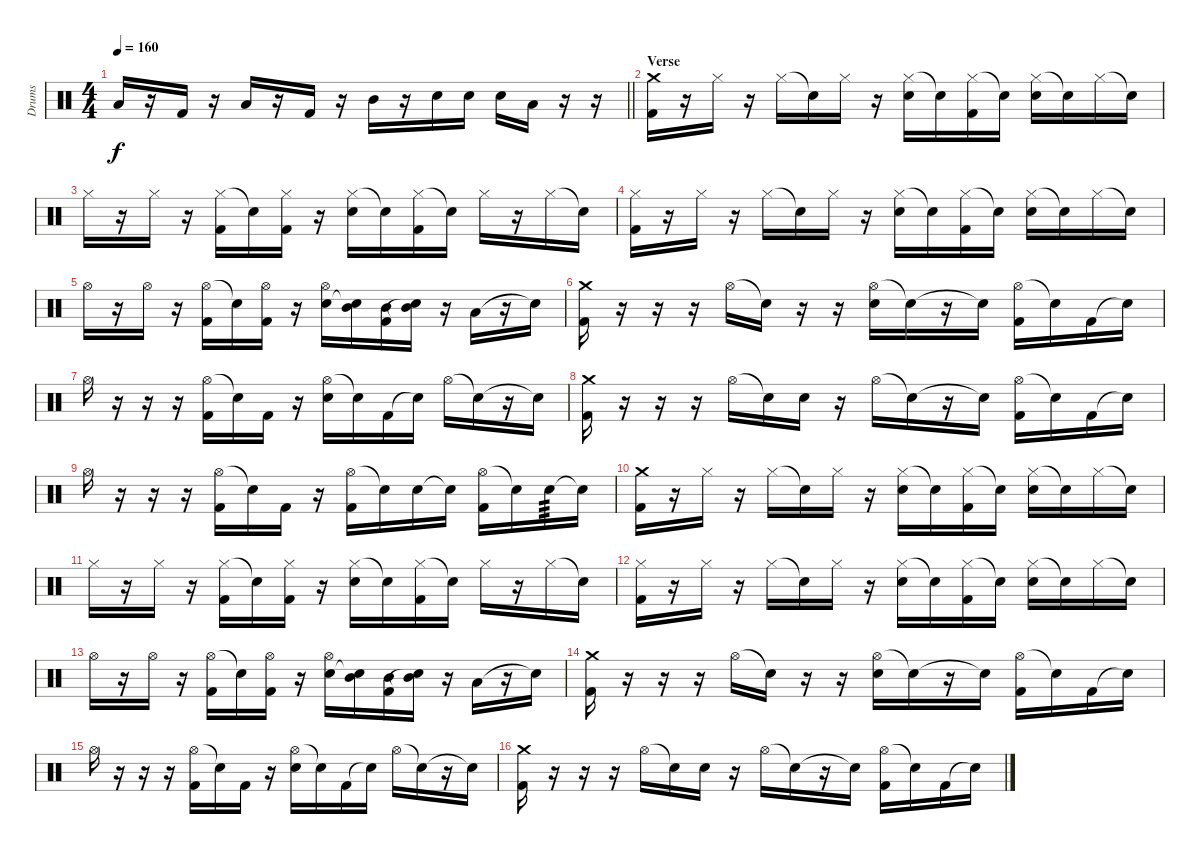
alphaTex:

\track ("Drums" "Drums") {instrument percussion}
\staff {score}
\articulation defaults
\ts (4 4)
\tempo 160
\clef neutral
\barLineRight lightlight
\ks c "Low Tom (hit)".16{dy f}
r.16 "Kick (hit) 2".16 r.16 "Low Tom (hit)".16 r.16 "Kick (hit) 2".16 r.16 "Mid Tom (hit)".16 r.16 "Snare (hit) 2".16 "Snare (hit) 2".16 "Snare (hit) 2".16 "Low Tom (hit)".16 r.16 r.16 |
\section ("" "Verse")
("Crash medium (hit)" "Kick (hit) 2").16 r.16 "Hi-Hat (closed)".16 r.16 "Hi-Hat (closed)".16 "Snare (hit)"{t}.16 "Hi-Hat (closed)".16 r.16 ("Hi-Hat (closed)" "Snare (hit) 2").16 "Snare (hit)"{t}.16 ("Hi-Hat (closed)" "Kick (hit) 2").16 "Snare (hit)"{t}.16 ("Hi-Hat (closed)" "Snare (hit) 2").16 "Snare (hit)"{t}.16 "Hi-Hat (closed)".16 "Snare (hit)"{t}.16 |
"Hi-Hat (closed)".16 r.16 "Hi-Hat (closed)".16 r.16 ("Hi-Hat (closed)" "Kick (hit) 2").16 "Snare (hit)"{t}.16 ("Hi-Hat (closed)" "Kick (hit) 2").16 r.16 ("Hi-Hat (closed)" "Snare (hit) 2").16 "Snare (hit)"{t}.16 ("Hi-Hat (closed)" "Kick (hit) 2").16 "Snare (hit)"{t}.16 "Hi-Hat (closed)".16 r.16 "Hi-Hat (closed)".16 "Snare (hit)"{t}.16 |
("Hi-Hat (closed)" "Kick (hit) 2").16 r.16 "Hi-Hat (closed)".16 r.16 "Hi-Hat (closed)".16 "Snare (hit)"{t}.16 "Hi-Hat (closed)".16 r.16 ("Hi-Hat (closed)" "Snare (hit) 2").16 "Snare (hit)"{t}.16 ("Hi-Hat (closed)" "Kick (hit) 2").16 "Snare (hit)"{t}.16 ("Hi-Hat (closed)" "Snare (hit) 2").16 "Snare (hit)"{t}.16 "Hi-Hat (closed)".16 "Snare (hit)"{t}.16 |
"Hi-Hat (open)".16 r.16 "Hi-Hat (open)".16 r.16 ("Hi-Hat (open)" "Kick (hit) 2").16 "Snare (hit)"{t}.16 ("Hi-Hat (open)" "Kick (hit) 2").16 r.16 ("Hi-Hat (open)" "Snare (hit) 2").16 ("Mid Tom (hit)" "Snare (hit)"{t}).16 ("Mid Tom (hit)" "Kick (hit) 2").16 ("Mid Tom (hit)" "Snare (hit)"{t}).16 r.16 "Low Tom (hit)".16 r.16 "Snare (hit)"{t}.16 |
("Crash medium (hit)" "Kick (hit) 2").16 r.16 r.16 r.16 "Hi-Hat (open)".16 "Snare (hit)"{t}.16 r.16 r.16 ("Hi-Hat (open)" "Snare (hit) 2").16 "Snare (hit)"{t}.16 r.16 "Snare (hit)"{t}.16 ("Hi-Hat (open)" "Kick (hit) 2").16 "Snare (hit)"{t}.16 "Kick (hit) 2".16 "Snare (hit)"{t}.16 |
"Hi-Hat (open)".16 r.16 r.16 r.16 ("Hi-Hat (open)" "Kick (hit) 2").16 "Snare (hit)"{t}.16 "Kick (hit) 2".16 r.16 ("Hi-Hat (open)" "Snare (hit) 2").16 "Snare (hit)"{t}.16 "Kick (hit) 2".16 "Snare (hit)"{t}.16 "Hi-Hat (open)".16 "Snare (hit)"{t}.16 r.16 "Snare (hit)"{t}.16 |
("Crash medium (hit)" "Kick (hit) 2").16 r.16 r.16 r.16 "Hi-Hat (open)".16 "Snare (hit)"{t}.16 "Snare (hit) 2".16 r.16 "Hi-Hat (open)".16 "Snare (hit)"{t}.16 r.16 "Snare (hit)"{t}.16 ("Hi-Hat (open)" "Kick (hit) 2").16 "Snare (hit)"{t}.16 "Kick (hit) 2".16 "Snare (hit)"{t}.16 |
"Hi-Hat (open)".16 r.16 r.16 r.16 ("Hi-Hat (open)" "Kick (hit) 2").16 "Snare (hit)"{t}.16 "Kick (hit) 2".16 r.16 ("Hi-Hat (open)" "Kick (hit) 2").16 "Snare (hit)"{t}.16 "Snare (hit) 2".16 "Snare (hit)"{t}.16 ("Hi-Hat (open)" "Kick (hit) 2").16 "Snare (hit)"{t}.16 "Snare (hit) 2".16{tp 3} "Snare (hit)"{t}.16 |
("Crash medium (hit)" "Kick (hit) 2").16 r.16 "Hi-Hat (closed)".16 r.16 "Hi-Hat (closed)".16 "Snare (hit)"{t}.16 "Hi-Hat (closed)".16 r.16 ("Hi-Hat (closed)" "Snare (hit) 2").16 "Snare (hit)"{t}.16 ("Hi-Hat (closed)" "Kick (hit) 2").16 "Snare (hit)"{t}.16 ("Hi-Hat (closed)" "Snare (hit) 2").16 "Snare (hit)"{t}.16 "Hi-Hat (closed)".16 "Snare (hit)"{t}.16 |
"Hi-Hat (closed)".16 r.16 "Hi-Hat (closed)".16 r.16 ("Hi-Hat (closed)" "Kick (hit) 2").16 "Snare (hit)"{t}.16 ("Hi-Hat (closed)" "Kick (hit) 2").16 r.16 ("Hi-Hat (closed)" "Snare (hit) 2").16 "Snare (hit)"{t}.16 ("Hi-Hat (closed)" "Kick (hit) 2").16 "Snare (hit)"{t}.16 "Hi-Hat (closed)".16 r.16 "Hi-Hat (closed)".16 "Snare (hit)"{t}.16 |
("Hi-Hat (closed)" "Kick (hit) 2").16 r.16 "Hi-Hat (closed)".16 r.16 "Hi-Hat (closed)".16 "Snare (hit)"{t}.16 "Hi-Hat (closed)".16 r.16 ("Hi-Hat (closed)" "Snare (hit) 2").16 "Snare (hit)"{t}.16 ("Hi-Hat (closed)" "Kick (hit) 2").16 "Snare (hit)"{t}.16 ("Hi-Hat (closed)" "Snare (hit) 2").16 "Snare (hit)"{t}.16 "Hi-Hat (closed)".16 "Snare (hit)"{t}.16 |
"Hi-Hat (open)".16 r.16 "Hi-Hat (open)".16 r.16 ("Hi-Hat (open)" "Kick (hit) 2").16 "Snare (hit)"{t}.16 ("Hi-Hat (open)" "Kick (hit) 2").16 r.16 ("Hi-Hat (open)" "Snare (hit) 2").16 ("Mid Tom (hit)" "Snare (hit)"{t}).16 ("Mid Tom (hit)" "Kick (hit) 2").16 ("Mid Tom (hit)" "Snare (hit)"{t}).16 r.16 "Low Tom (hit)".16 r.16 "Snare (hit)"{t}.16 |
("Crash medium (hit)" "Kick (hit) 2").16 r.16 r.16 r.16 "Hi-Hat (open)".16 "Snare (hit)"{t}.16 r.16 r.16 ("Hi-Hat (open)" "Snare (hit) 2").16 "Snare (hit)"{t}.16 r.16 "Snare (hit)"{t}.16 ("Hi-Hat (open)" "Kick (hit) 2").16 "Snare (hit)"{t}.16 "Kick (hit) 2".16 "Snare (hit)"{t}.16 |
"Hi-Hat (open)".16 r.16 r.16 r.16 ("Hi-Hat (open)" "Kick (hit) 2").16 "Snare (hit)"{t}.16 "Kick (hit) 2".16 r.16 ("Hi-Hat (open)" "Snare (hit) 2").16 "Snare (hit)"{t}.16 "Kick (hit) 2".16 "Snare (hit)"{t}.16 "Hi-Hat (open)".16 "Snare (hit)"{t}.16 r.16 "Snare (hit)"{t}.16 |
("Crash medium (hit)" "Kick (hit) 2").16 r.16 r.16 r.16 "Hi-Hat (open)".16 "Snare (hit)"{t}.16 "Snare (hit) 2".16 r.16 "Hi-Hat (open)".16 "Snare (hit)"{t}.16 r.16 "Snare (hit)"{t}.16 ("Hi-Hat (open)" "Kick (hit) 2").16 "Snare (hit)"{t}.16 "Kick (hit) 2".16 "Snare (hit)"{t}.16
